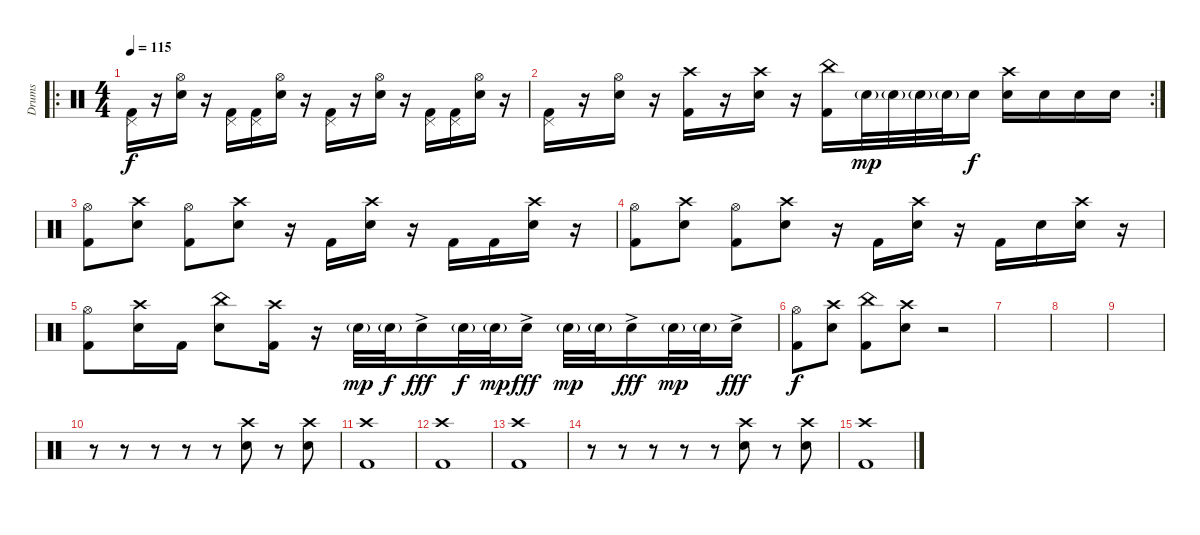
\track ("Drums" "Drums") {instrument percussion}
\staff {score}
\articulation defaults
\ro
\ts (4 4)
\tempo 115
\clef neutral
\ks c
("Pedal Hi-Hat (hit)" "Kick (hit) 2").16{dy f} r.16 ("Hi-Hat (open)" "Electric Snare (hit)").16 r.16 ("Pedal Hi-Hat (hit)" "Kick (hit) 2").16 ("Pedal Hi-Hat (hit)" "Kick (hit) 2").16 ("Hi-Hat (open)" "Electric Snare (hit)").16 r.16 ("Pedal Hi-Hat (hit)" "Kick (hit) 2").16 r.16 ("Hi-Hat (open)" "Electric Snare (hit)").16 r.16 ("Pedal Hi-Hat (hit)" "Kick (hit) 2").16 ("Pedal Hi-Hat (hit)" "Kick (hit) 2").16 ("Hi-Hat (open)" "Electric Snare (hit)").16 r.16 |
\rc 2
("Pedal Hi-Hat (hit)" "Kick (hit) 2").16 r.16 ("Hi-Hat (open)" "Electric Snare (hit)").16 r.16 ("Crash high (hit)" "Kick (hit) 2").16 r.16 ("Crash high (hit)" "Electric Snare (hit)").16 r.16 ("China (hit)" "Kick (hit) 2").16 "Electric Snare (hit)"{g}.32{dy mp} "Electric Snare (hit)"{g}.32 "Electric Snare (hit)"{g}.32 "Electric Snare (hit)"{g}.32 "Electric Snare (hit)".16{dy f} ("Crash high (hit)" "Electric Snare (hit)").16 "Electric Snare (hit)".16 "Electric Snare (hit)".16 "Electric Snare (hit)".16 |
("Hi-Hat (open)" "Kick (hit) 2").8 ("Crash high (hit)" "Electric Snare (hit)").8 ("Hi-Hat (open)" "Kick (hit) 2").8 ("Crash high (hit)" "Electric Snare (hit)").8 r.16 "Kick (hit) 2".16 ("Crash high (hit)" "Electric Snare (hit)").16 r.16 "Kick (hit) 2".16 "Kick (hit) 2".16 ("Crash high (hit)" "Electric Snare (hit)").16 r.16 |
("Hi-Hat (open)" "Kick (hit) 2").8 ("Crash high (hit)" "Electric Snare (hit)").8 ("Hi-Hat (open)" "Kick (hit) 2").8 ("Crash high (hit)" "Electric Snare (hit)").8 r.16 "Kick (hit) 2".16 ("Crash high (hit)" "Electric Snare (hit)").16 r.16 "Kick (hit) 2".16 "Electric Snare (hit)".16 ("Crash high (hit)" "Electric Snare (hit)").16 r.16 |
("Hi-Hat (open)" "Kick (hit) 2").8 ("Crash high (hit)" "Electric Snare (hit)").16 "Kick (hit) 2".16 ("China (hit)" "Electric Snare (hit)").8 ("Crash high (hit)" "Kick (hit) 2").16 r.16 "Electric Snare (hit)"{g}.32{dy mp} "Electric Snare (hit)"{g}.32{dy f} "Electric Snare (hit)"{ac}.16{dy fff} "Electric Snare (hit)"{g}.32{dy f} "Electric Snare (hit)"{g}.32{dy mp} "Electric Snare (hit)"{ac}.16{dy fff} "Electric Snare (hit)"{g}.32{dy mp} "Electric Snare (hit)"{g}.32 "Electric Snare (hit)"{ac}.16{dy fff} "Electric Snare (hit)"{g}.32{dy mp} "Electric Snare (hit)"{g}.32 "Electric Snare (hit)"{ac}.16{dy fff} |
("Hi-Hat (open)" "Kick (hit) 2").8{dy f} ("Crash high (hit)" "Electric Snare (hit)").8 ("China (hit)" "Kick (hit) 2").8 ("Crash high (hit)" "Electric Snare (hit)").8 r.2 |
|
|
|
r.8 r.8 r.8 r.8 r.8 ("Crash high (hit)" "Electric Snare (hit)").8 r.8 ("Crash high (hit)" "Electric Snare (hit)").8 |
("Crash high (hit)" "Kick (hit) 2").1 |
("Crash high (hit)" "Kick (hit) 2").1 |
("Crash high (hit)" "Kick (hit) 2").1 |
r.8 r.8 r.8 r.8 r.8 ("Crash high (hit)" "Electric Snare (hit)").8 r.8 ("Crash high (hit)" "Electric Snare (hit)").8 |
("Crash high (hit)" "Kick (hit) 2").1
